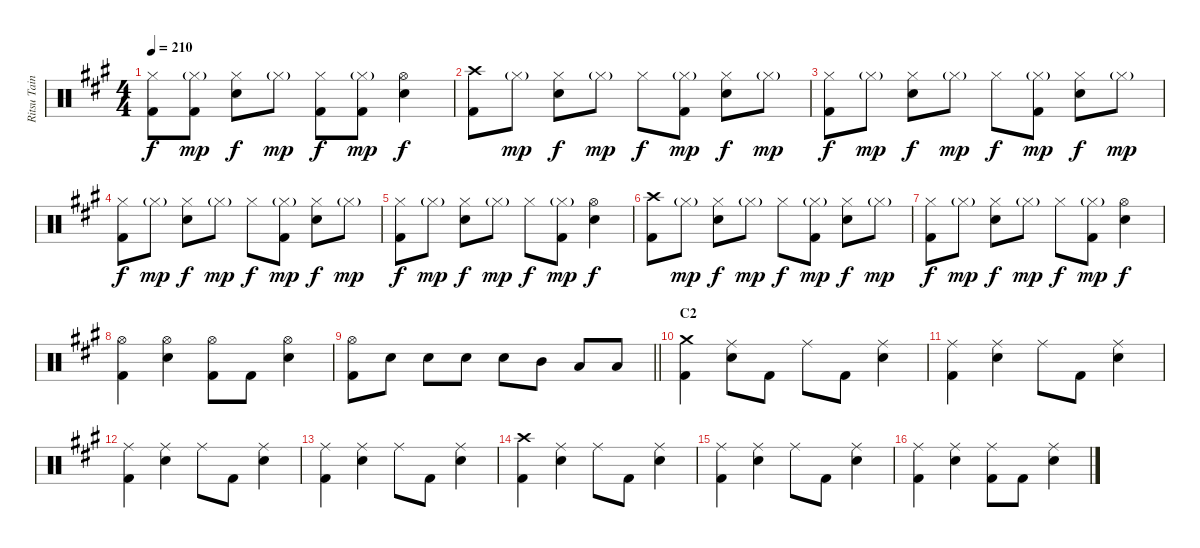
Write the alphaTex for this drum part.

\track ("Ritsu Tainaka" "Ritsu Tain") {instrument percussion}
\staff {score}
\articulation defaults
\ts (4 4)
\tempo 210
\clef neutral
\ks a
("Hi-Hat (closed)" "Kick (hit) 2").8{dy f} ("Hi-Hat (closed)"{g} "Kick (hit) 2").8{dy mp} ("Hi-Hat (closed)" "Electric Snare (hit)").8{dy f} "Hi-Hat (closed)"{g}.8{dy mp} ("Hi-Hat (closed)" "Kick (hit) 2").8{dy f} ("Hi-Hat (closed)"{g} "Kick (hit) 2").8{dy mp} ("Hi-Hat (open)" "Electric Snare (hit)").4{dy f} |
("Crash high (hit)" "Kick (hit) 2").8 "Hi-Hat (closed)"{g}.8{dy mp} ("Hi-Hat (closed)" "Electric Snare (hit)").8{dy f} "Hi-Hat (closed)"{g}.8{dy mp} "Hi-Hat (closed)".8{dy f} ("Hi-Hat (closed)"{g} "Kick (hit) 2").8{dy mp} ("Hi-Hat (closed)" "Electric Snare (hit)").8{dy f} "Hi-Hat (closed)"{g}.8{dy mp} |
("Hi-Hat (closed)" "Kick (hit) 2").8{dy f} "Hi-Hat (closed)"{g}.8{dy mp} ("Hi-Hat (closed)" "Electric Snare (hit)").8{dy f} "Hi-Hat (closed)"{g}.8{dy mp} "Hi-Hat (closed)".8{dy f} ("Hi-Hat (closed)"{g} "Kick (hit) 2").8{dy mp} ("Hi-Hat (closed)" "Electric Snare (hit)").8{dy f} "Hi-Hat (closed)"{g}.8{dy mp} |
("Hi-Hat (closed)" "Kick (hit) 2").8{dy f} "Hi-Hat (closed)"{g}.8{dy mp} ("Hi-Hat (closed)" "Electric Snare (hit)").8{dy f} "Hi-Hat (closed)"{g}.8{dy mp} "Hi-Hat (closed)".8{dy f} ("Hi-Hat (closed)"{g} "Kick (hit) 2").8{dy mp} ("Hi-Hat (closed)" "Electric Snare (hit)").8{dy f} "Hi-Hat (closed)"{g}.8{dy mp} |
("Hi-Hat (closed)" "Kick (hit) 2").8{dy f} "Hi-Hat (closed)"{g}.8{dy mp} ("Hi-Hat (closed)" "Electric Snare (hit)").8{dy f} "Hi-Hat (closed)"{g}.8{dy mp} "Hi-Hat (closed)".8{dy f} ("Hi-Hat (closed)"{g} "Kick (hit) 2").8{dy mp} ("Hi-Hat (open)" "Electric Snare (hit)").4{dy f} |
("Crash high (hit)" "Kick (hit) 2").8 "Hi-Hat (closed)"{g}.8{dy mp} ("Hi-Hat (closed)" "Electric Snare (hit)").8{dy f} "Hi-Hat (closed)"{g}.8{dy mp} "Hi-Hat (closed)".8{dy f} ("Hi-Hat (closed)"{g} "Kick (hit) 2").8{dy mp} ("Hi-Hat (closed)" "Electric Snare (hit)").8{dy f} "Hi-Hat (closed)"{g}.8{dy mp} |
("Hi-Hat (closed)" "Kick (hit) 2").8{dy f} "Hi-Hat (closed)"{g}.8{dy mp} ("Hi-Hat (closed)" "Electric Snare (hit)").8{dy f} "Hi-Hat (closed)"{g}.8{dy mp} "Hi-Hat (closed)".8{dy f} ("Hi-Hat (closed)"{g} "Kick (hit) 2").8{dy mp} ("Hi-Hat (open)" "Electric Snare (hit)").4{dy f} |
("Hi-Hat (open)" "Kick (hit) 2").4 ("Hi-Hat (open)" "Electric Snare (hit)").4 ("Hi-Hat (open)" "Kick (hit) 2").8 "Kick (hit) 2".8 ("Hi-Hat (open)" "Electric Snare (hit)").4 |
\barLineRight lightlight
("Hi-Hat (open)" "Kick (hit) 2").8 "Electric Snare (hit)".8 "Electric Snare (hit)".8 "Electric Snare (hit)".8 "Electric Snare (hit)".8 "Mid Tom (hit)".8 "Low Tom (hit)".8 "Low Floor Tom (hit)".8 |
\section ("" "C2")
("Crash medium (hit)" "Kick (hit) 2").4 ("Ride (middle)" "Electric Snare (hit)").8 "Kick (hit) 2".8 "Ride (middle)".8 "Kick (hit) 2".8 ("Ride (middle)" "Electric Snare (hit)").4 |
("Ride (middle)" "Kick (hit) 2").4 ("Ride (middle)" "Electric Snare (hit)").4 "Ride (middle)".8 "Kick (hit) 2".8 ("Ride (middle)" "Electric Snare (hit)").4 |
("Ride (middle)" "Kick (hit) 2").4 ("Ride (middle)" "Electric Snare (hit)").4 "Ride (middle)".8 "Kick (hit) 2".8 ("Ride (middle)" "Electric Snare (hit)").4 |
("Ride (middle)" "Kick (hit) 2").4 ("Ride (middle)" "Electric Snare (hit)").4 "Ride (middle)".8 "Kick (hit) 2".8 ("Ride (middle)" "Electric Snare (hit)").4 |
("Crash high (hit)" "Kick (hit) 2").4 ("Ride (middle)" "Electric Snare (hit)").4 "Ride (middle)".8 "Kick (hit) 2".8 ("Ride (middle)" "Electric Snare (hit)").4 |
("Ride (middle)" "Kick (hit) 2").4 ("Ride (middle)" "Electric Snare (hit)").4 "Ride (middle)".8 "Kick (hit) 2".8 ("Ride (middle)" "Electric Snare (hit)").4 |
("Ride (middle)" "Kick (hit) 2").4 ("Ride (middle)" "Electric Snare (hit)").4 ("Ride (middle)" "Kick (hit) 2").8 "Kick (hit) 2".8 ("Ride (middle)" "Electric Snare (hit)").4
